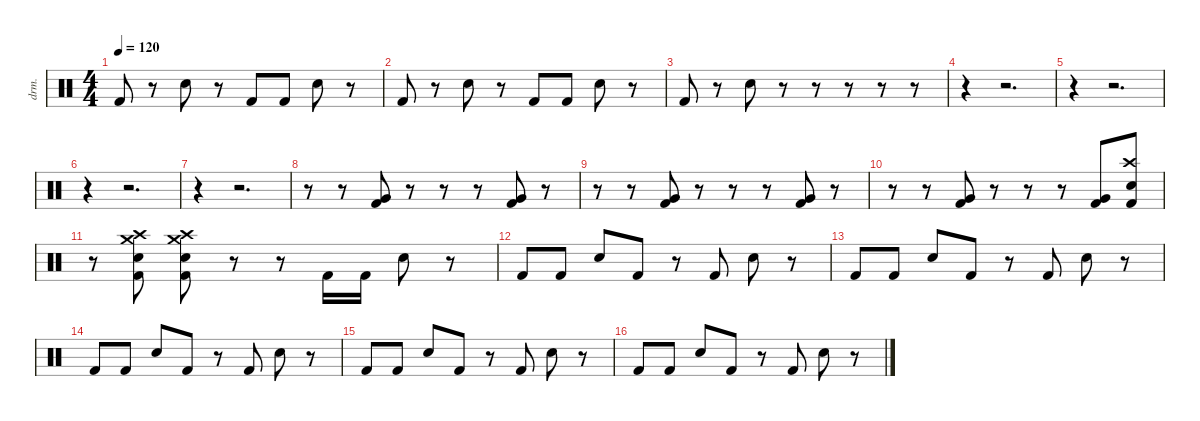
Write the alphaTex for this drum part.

\defaultSystemsLayout 4
\hideDynamics
\bracketExtendMode nobrackets
\otherSystemsTrackNameOrientation horizontal
\track ("Percussion" "drm.") {instrument percussion}
\staff {score}
\articulation defaults
\ts (4 4)
\tempo 120
\clef neutral
\ks c "Kick (hit) 2".8{dy f beam Up}
r.8{beam Up} "Snare (hit) 2".8{beam Down} r.8{beam Down} "Kick (hit) 2".8{beam Up} "Kick (hit) 2".8{beam Up} "Snare (hit) 2".8{beam Down} r.8{beam Down} |
"Kick (hit) 2".8{beam Up} r.8{beam Up} "Snare (hit) 2".8{beam Down} r.8{beam Down} "Kick (hit) 2".8{beam Up} "Kick (hit) 2".8{beam Up} "Snare (hit) 2".8{beam Down} r.8{beam Down} |
"Kick (hit) 2".8{beam Up} r.8{beam Up} "Snare (hit) 2".8{beam Down} r.8{beam Down} r.8{beam Down} r.8{beam Down} r.8{beam Down} r.8{beam Down} |
r.4{beam Down} r.2{d beam Down} |
r.4{beam Down} r.2{d beam Down} |
r.4{beam Down} r.2{d beam Down} |
r.4{beam Down} r.2{d beam Down} |
r.8{beam Down} r.8{beam Down} ("Kick (hit) 2" "Very Low Tom (hit)").8{beam Up} r.8{beam Up} r.8{beam Up} r.8{beam Up} ("Kick (hit) 2" "Very Low Tom (hit)").8{beam Up} r.8{beam Up} |
r.8{beam Down} r.8{beam Down} ("Kick (hit) 2" "Very Low Tom (hit)").8{beam Up} r.8{beam Up} r.8{beam Up} r.8{beam Up} ("Kick (hit) 2" "Very Low Tom (hit)").8{beam Up} r.8{beam Up} |
r.8{beam Down} r.8{beam Down} ("Kick (hit) 2" "Very Low Tom (hit)").8{beam Up} r.8{beam Up} r.8{beam Up} r.8{beam Up} ("Kick (hit) 2" "Very Low Tom (hit)").8{beam Up} ("Kick (hit) 2" "Snare (hit) 2" "Crash high (hit)").8{beam Up} |
r.8{beam Down} ("Kick (hit) 2" "Snare (hit) 2" "Crash high (hit)" "Crash medium (hit)").8{beam Down} ("Kick (hit) 2" "Snare (hit) 2" "Crash high (hit)" "Crash medium (hit)").8{beam Down} r.8{beam Down} r.8{beam Down} "Kick (hit) 2".16{beam Up} "Kick (hit) 2".16{beam Up} "Snare (hit) 2".8{beam Down} r.8{beam Down} |
"Kick (hit) 2".8{beam Up} "Kick (hit) 2".8{beam Up} "Snare (hit) 2".8{beam Up} "Kick (hit) 2".8{beam Up} r.8{beam Up} "Kick (hit) 2".8{beam Up} "Snare (hit) 2".8{beam Down} r.8{beam Down} |
"Kick (hit) 2".8{beam Up} "Kick (hit) 2".8{beam Up} "Snare (hit) 2".8{beam Up} "Kick (hit) 2".8{beam Up} r.8{beam Up} "Kick (hit) 2".8{beam Up} "Snare (hit) 2".8{beam Down} r.8{beam Down} |
"Kick (hit) 2".8{beam Up} "Kick (hit) 2".8{beam Up} "Snare (hit) 2".8{beam Up} "Kick (hit) 2".8{beam Up} r.8{beam Up} "Kick (hit) 2".8{beam Up} "Snare (hit) 2".8{beam Down} r.8{beam Down} |
"Kick (hit) 2".8{beam Up} "Kick (hit) 2".8{beam Up} "Snare (hit) 2".8{beam Up} "Kick (hit) 2".8{beam Up} r.8{beam Up} "Kick (hit) 2".8{beam Up} "Snare (hit) 2".8{beam Down} r.8{beam Down} |
"Kick (hit) 2".8{beam Up} "Kick (hit) 2".8{beam Up} "Snare (hit) 2".8{beam Up} "Kick (hit) 2".8{beam Up} r.8{beam Up} "Kick (hit) 2".8{beam Up} "Snare (hit) 2".8{beam Down} r.8{beam Down}
